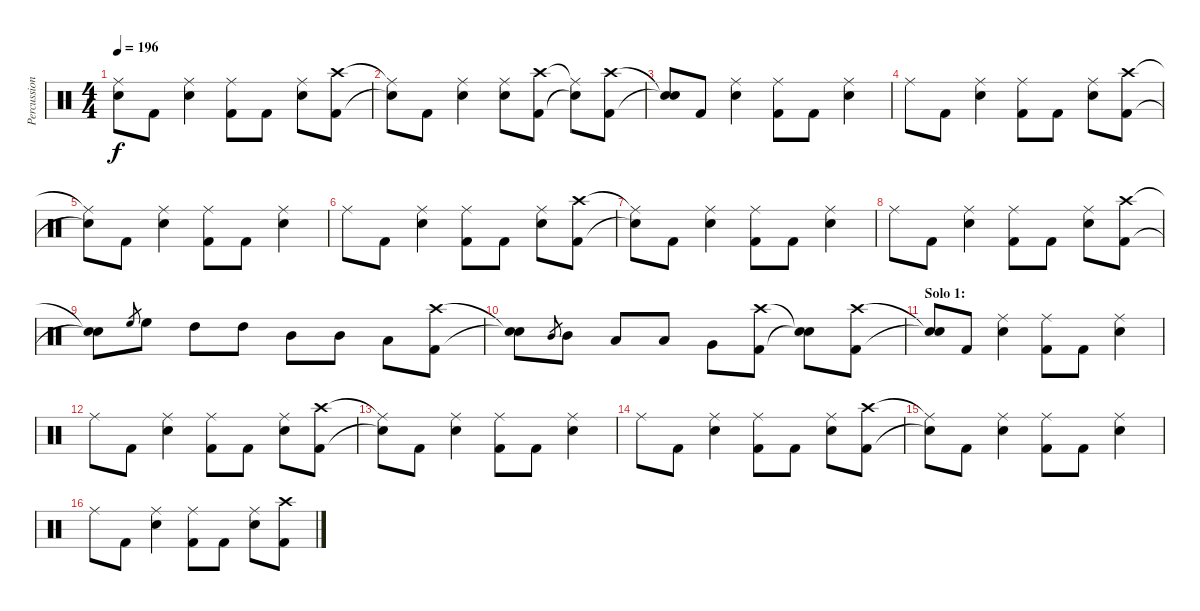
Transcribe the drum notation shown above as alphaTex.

\track ("Percussion" "Percussion") {instrument percussion}
\staff {score}
\articulation defaults
\ts (4 4)
\tempo 196
\clef neutral
\ks c
("Ride (middle)"{t} "Snare (hit)"{t}).8{dy f} "Kick (hit) 2".8 ("Ride (middle)" "Snare (hit) 2").4 ("Ride (middle)" "Kick (hit) 2").8 "Kick (hit) 2".8 ("Ride (middle)" "Snare (hit) 2").8 ("Crash high (hit)" "Kick (hit) 2").8 |
("Ride (middle)"{t} "Snare (hit)"{t}).8 "Kick (hit) 2".8 ("Ride (middle)" "Snare (hit) 2").4 ("Ride (middle)" "Snare (hit) 2").8 ("Crash high (hit)" "Kick (hit) 2").8 ("Ride (middle)"{t} "Snare (hit)"{t}).8 ("Crash high (hit)" "Kick (hit) 2").8 |
("Snare (hit)"{t} "Snare (hit)"{t}).8 "Kick (hit) 2".8 ("Ride (middle)" "Snare (hit) 2").4 ("Ride (middle)" "Kick (hit) 2").8 "Kick (hit) 2".8 ("Ride (middle)" "Snare (hit) 2").4 |
"Ride (middle)".8 "Kick (hit) 2".8 ("Ride (middle)" "Snare (hit) 2").4 ("Ride (middle)" "Kick (hit) 2").8 "Kick (hit) 2".8 ("Ride (middle)" "Snare (hit) 2").8 ("Crash high (hit)" "Kick (hit) 2").8 |
("Ride (middle)"{t} "Snare (hit)"{t}).8 "Kick (hit) 2".8 ("Ride (middle)" "Snare (hit) 2").4 ("Ride (middle)" "Kick (hit) 2").8 "Kick (hit) 2".8 ("Ride (middle)" "Snare (hit) 2").4 |
"Ride (middle)".8 "Kick (hit) 2".8 ("Ride (middle)" "Snare (hit) 2").4 ("Ride (middle)" "Kick (hit) 2").8 "Kick (hit) 2".8 ("Ride (middle)" "Snare (hit) 2").8 ("Crash high (hit)" "Kick (hit) 2").8 |
("Ride (middle)"{t} "Snare (hit)"{t}).8 "Kick (hit) 2".8 ("Ride (middle)" "Snare (hit) 2").4 ("Ride (middle)" "Kick (hit) 2").8 "Kick (hit) 2".8 ("Ride (middle)" "Snare (hit) 2").4 |
"Ride (middle)".8 "Kick (hit) 2".8 ("Ride (middle)" "Snare (hit) 2").4 ("Ride (middle)" "Kick (hit) 2").8 "Kick (hit) 2".8 ("Ride (middle)" "Snare (hit) 2").8 ("Crash high (hit)" "Kick (hit) 2").8 |
("Snare (hit)"{t} "Snare (hit)"{t}).8 "High Floor Tom (hit)".8{gr} "High Floor Tom (hit)".8 "High Tom (hit)".8 "High Tom (hit)".8 "Mid Tom (hit)".8 "Mid Tom (hit)".8 "Low Tom (hit)".8 ("Crash high (hit)" "Kick (hit) 2").8 |
("Snare (hit)"{t} "Snare (hit)"{t}).8 "Mid Tom (hit)".8{gr} "Mid Tom (hit)".8 "Low Tom (hit)".8 "Low Tom (hit)".8 "Very Low Tom (hit)".8 ("Crash high (hit)" "Kick (hit) 2").8 ("Snare (hit)"{t} "Snare (hit)"{t}).8 ("Crash high (hit)" "Kick (hit) 2").8 |
\section ("" "Solo 1:")
("Snare (hit)"{t} "Snare (hit)"{t}).8 "Kick (hit) 2".8 ("Ride (middle)" "Snare (hit) 2").4 ("Ride (middle)" "Kick (hit) 2").8 "Kick (hit) 2".8 ("Ride (middle)" "Snare (hit) 2").4 |
"Ride (middle)".8 "Kick (hit) 2".8 ("Ride (middle)" "Snare (hit) 2").4 ("Ride (middle)" "Kick (hit) 2").8 "Kick (hit) 2".8 ("Ride (middle)" "Snare (hit) 2").8 ("Crash high (hit)" "Kick (hit) 2").8 |
("Ride (middle)"{t} "Snare (hit)"{t}).8 "Kick (hit) 2".8 ("Ride (middle)" "Snare (hit) 2").4 ("Ride (middle)" "Kick (hit) 2").8 "Kick (hit) 2".8 ("Ride (middle)" "Snare (hit) 2").4 |
"Ride (middle)".8 "Kick (hit) 2".8 ("Ride (middle)" "Snare (hit) 2").4 ("Ride (middle)" "Kick (hit) 2").8 "Kick (hit) 2".8 ("Ride (middle)" "Snare (hit) 2").8 ("Crash high (hit)" "Kick (hit) 2").8 |
("Ride (middle)"{t} "Snare (hit)"{t}).8 "Kick (hit) 2".8 ("Ride (middle)" "Snare (hit) 2").4 ("Ride (middle)" "Kick (hit) 2").8 "Kick (hit) 2".8 ("Ride (middle)" "Snare (hit) 2").4 |
"Ride (middle)".8 "Kick (hit) 2".8 ("Ride (middle)" "Snare (hit) 2").4 ("Ride (middle)" "Kick (hit) 2").8 "Kick (hit) 2".8 ("Ride (middle)" "Snare (hit) 2").8 ("Crash high (hit)" "Kick (hit) 2").8
